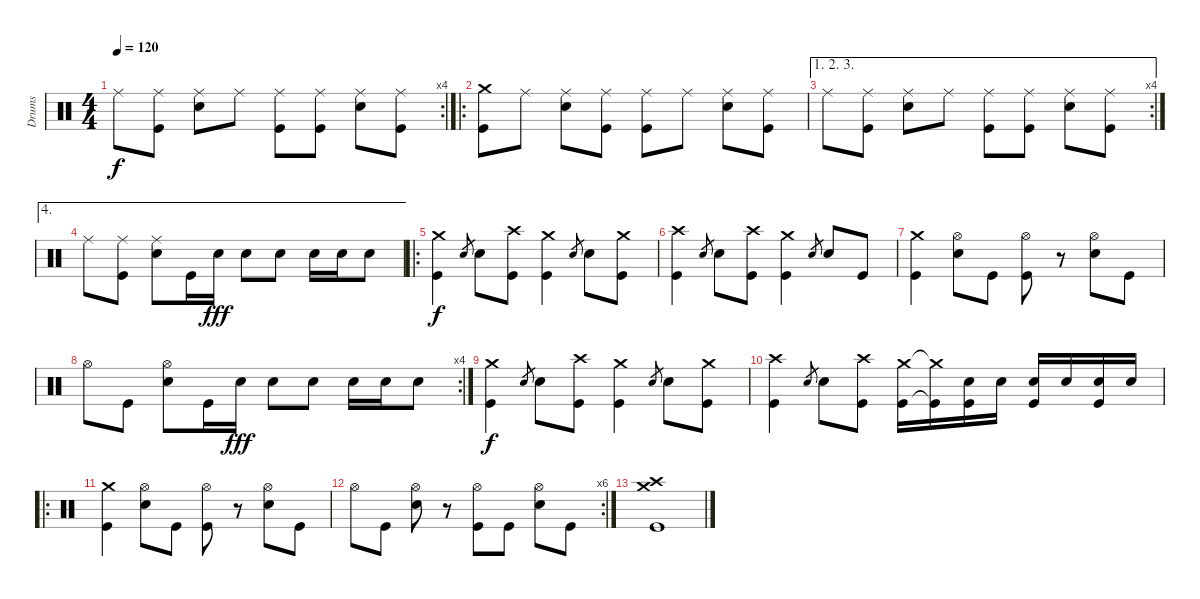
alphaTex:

\track ("Drums" "Drums") {instrument percussion}
\staff {score}
\articulation defaults
\rc 4
\ts (4 4)
\tempo 120
\clef neutral
\ks c "Ride (middle)".8{dy f}
("Ride (middle)" "Kick (hit)").8 ("Ride (middle)" "Snare (hit) 2").8 "Ride (middle)".8 ("Ride (middle)" "Kick (hit)").8 ("Ride (middle)" "Kick (hit)").8 ("Ride (middle)" "Snare (hit) 2").8 ("Ride (middle)" "Kick (hit)").8 |
\ro
("Crash medium (hit)" "Kick (hit)").8 "Ride (middle)".8 ("Ride (middle)" "Snare (hit) 2").8 ("Ride (middle)" "Kick (hit)").8 ("Ride (middle)" "Kick (hit)").8 "Ride (middle)".8 ("Ride (middle)" "Snare (hit) 2").8 ("Ride (middle)" "Kick (hit)").8 |
\ae (1 2 3)
\rc 4 "Ride (middle)".8
("Ride (middle)" "Kick (hit)").8 ("Ride (middle)" "Snare (hit) 2").8 "Ride (middle)".8 ("Ride (middle)" "Kick (hit)").8 ("Ride (middle)" "Kick (hit)").8 ("Ride (middle)" "Snare (hit) 2").8 ("Ride (middle)" "Kick (hit)").8 |
\ae 4 "Ride (middle)".8
("Ride (middle)" "Kick (hit)").8 ("Ride (middle)" "Snare (hit) 2").8 "Kick (hit)".16 "Snare (hit) 2".16{dy fff} "Snare (hit) 2".8 "Snare (hit) 2".8 "Snare (hit) 2".16 "Snare (hit) 2".16 "Snare (hit) 2".8 |
\ro
("Crash medium (hit)" "Kick (hit)").4{dy f} "Snare (hit) 2".8{gr} "Snare (hit) 2".8 ("Kick (hit)" "Crash high (hit)").8 ("Kick (hit)" "Crash medium (hit)").4 "Snare (hit) 2".8{gr} "Snare (hit) 2".8 ("Kick (hit)" "Crash medium (hit)").8 |
("Kick (hit)" "Crash high (hit)").4 "Snare (hit) 2".8{gr} "Snare (hit) 2".8 ("Kick (hit)" "Crash high (hit)").8 ("Kick (hit)" "Crash medium (hit)").4 "Snare (hit) 2".8{gr} "Snare (hit) 2".8 "Kick (hit)".8 |
("Crash medium (hit)" "Kick (hit)").4 ("Hi-Hat (open)" "Snare (hit) 2").8 "Kick (hit)".8 ("Hi-Hat (open)" "Kick (hit)").8 r.8 ("Hi-Hat (open)" "Snare (hit) 2").8 "Kick (hit)".8 |
\rc 4 "Hi-Hat (open)".8 "Kick (hit)".8
("Hi-Hat (open)" "Snare (hit) 2").8 "Kick (hit)".16 "Snare (hit) 2".16{dy fff} "Snare (hit) 2".8 "Snare (hit) 2".8 "Snare (hit) 2".16 "Snare (hit) 2".16 "Snare (hit) 2".8 |
("Crash medium (hit)" "Kick (hit)").4{dy f} "Snare (hit) 2".8{gr} "Snare (hit) 2".8 ("Kick (hit)" "Crash high (hit)").8 ("Kick (hit)" "Crash medium (hit)").4 "Snare (hit) 2".8{gr} "Snare (hit) 2".8 ("Kick (hit)" "Crash medium (hit)").8 |
("Kick (hit)" "Crash high (hit)").4 "Snare (hit) 2".8{gr} "Snare (hit) 2".8 ("Kick (hit)" "Crash high (hit)").8 ("Kick (hit)" "Crash medium (hit)").16 ("Kick (hit)"{t} "Crash medium (hit)"{t}).16 ("Snare (hit) 2" "Kick (hit)").16 "Snare (hit) 2".16 ("Snare (hit) 2" "Kick (hit)").16 "Snare (hit) 2".16 ("Snare (hit) 2" "Kick (hit)").16 "Snare (hit) 2".16 |
\ro
("Crash medium (hit)" "Kick (hit)").4 ("Hi-Hat (open)" "Snare (hit) 2").8 "Kick (hit)".8 ("Hi-Hat (open)" "Kick (hit)").8 r.8 ("Hi-Hat (open)" "Snare (hit) 2").8 "Kick (hit)".8 |
\rc 6 "Hi-Hat (open)".8 "Kick (hit)".8
("Hi-Hat (open)" "Snare (hit) 2").8 r.8 ("Hi-Hat (open)" "Kick (hit)").8 "Kick (hit)".8 ("Hi-Hat (open)" "Snare (hit) 2").8 "Kick (hit)".8 |
("Crash high (hit)" "Crash medium (hit)" "Kick (hit)").1
